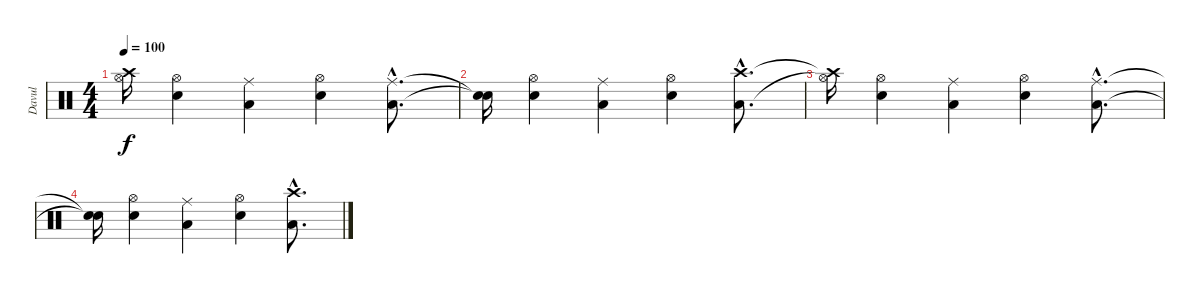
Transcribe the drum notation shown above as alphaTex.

\track ("Davul" "Davul") {instrument percussion}
\staff {score}
\articulation defaults
\ts (4 4)
\tempo 100
\clef neutral
\ks c
("Crash high (hit)"{t} "Hi-Hat (open)"{t}).16{dy f} ("Hi-Hat (open)" "Electric Snare (hit)").4 ("Ride (middle)" "Low Floor Tom (hit)").4 ("Hi-Hat (open)" "Electric Snare (hit)").4 ("Ride (middle)"{hac} "Low Floor Tom (hit)"{hac}).8{d} |
("Snare (hit)"{t} "Snare (hit)"{t}).16 ("Hi-Hat (open)" "Electric Snare (hit)").4 ("Ride (middle)" "Low Floor Tom (hit)").4 ("Hi-Hat (open)" "Electric Snare (hit)").4 ("Crash high (hit)"{hac} "Low Floor Tom (hit)"{hac}).8{d} |
("Crash high (hit)"{t} "Hi-Hat (open)"{t}).16 ("Hi-Hat (open)" "Electric Snare (hit)").4 ("Ride (middle)" "Low Floor Tom (hit)").4 ("Hi-Hat (open)" "Electric Snare (hit)").4 ("Ride (middle)"{hac} "Low Floor Tom (hit)"{hac}).8{d} |
("Snare (hit)"{t} "Snare (hit)"{t}).16 ("Hi-Hat (open)" "Electric Snare (hit)").4 ("Ride (middle)" "Low Floor Tom (hit)").4 ("Hi-Hat (open)" "Electric Snare (hit)").4 ("Crash high (hit)"{hac} "Low Floor Tom (hit)"{hac}).8{d}
